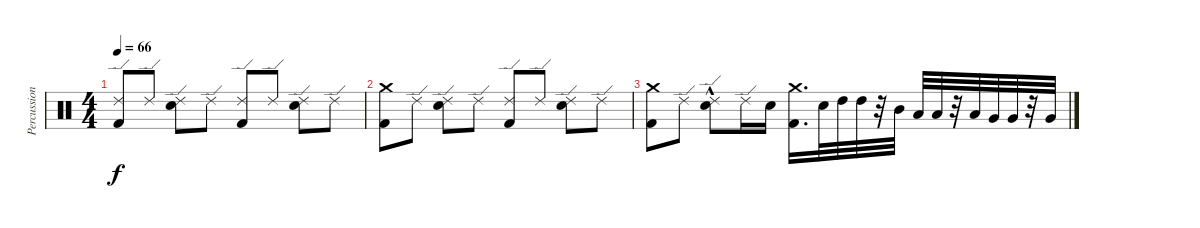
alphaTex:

\track ("Percussioni" "Percussion") {instrument percussion}
\staff {score}
\articulation defaults
\ts (4 4)
\tempo 66
\clef neutral
\ks c
("Ride (edge) 2" "Kick (hit) 2").8{dy f} "Ride (edge) 2".8 ("Ride (edge) 2" "Snare (hit) 2").8 "Ride (edge) 2".8 ("Ride (edge) 2" "Kick (hit) 2").8 "Ride (edge) 2".8 ("Ride (edge) 2" "Snare (hit) 2").8 "Ride (edge) 2".8 |
("Crash medium (hit)" "Kick (hit) 2").8 "Ride (edge) 2".8 ("Ride (edge) 2" "Snare (hit) 2").8 "Ride (edge) 2".8 ("Ride (edge) 2" "Kick (hit) 2").8 "Ride (edge) 2".8 ("Ride (edge) 2" "Snare (hit) 2").8 "Ride (edge) 2".8 |
("Crash medium (hit)" "Kick (hit) 2").8 "Ride (edge) 2".8 ("Snare (hit) 2"{hac} "Ride (edge) 2").8 "Ride (edge) 2".16 "Snare (hit) 2".16 ("Crash medium (hit)" "Kick (hit) 2").16{d} "Snare (hit) 2".32 "High Tom (hit)".32 "High Tom (hit)".32 r.32 "Mid Tom (hit)".32 "Low Tom (hit)".32 "Low Tom (hit)".32 r.32 "Low Tom (hit)".32 "Very Low Tom (hit)".32 "Very Low Tom (hit)".32 r.32 "Very Low Tom (hit)".32
